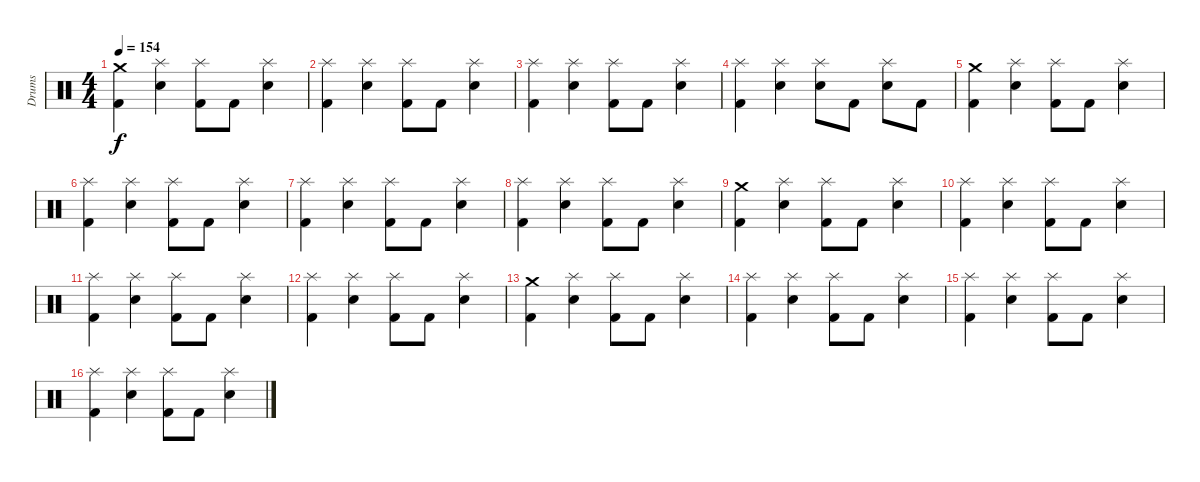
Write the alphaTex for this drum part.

\track ("Drums" "Drums") {instrument percussion}
\staff {score}
\articulation defaults
\ts (4 4)
\tempo 154
\clef neutral
\ks c
("Kick (hit) 2" "Crash medium (hit)").4{dy f} ("Splash (hit)" "Electric Snare (hit)").4 ("Kick (hit) 2" "Splash (hit)").8 "Kick (hit) 2".8 ("Splash (hit)" "Electric Snare (hit)").4 |
("Kick (hit) 2" "Splash (hit)").4 ("Splash (hit)" "Electric Snare (hit)").4 ("Kick (hit) 2" "Splash (hit)").8 "Kick (hit) 2".8 ("Splash (hit)" "Electric Snare (hit)").4 |
("Kick (hit) 2" "Splash (hit)").4 ("Electric Snare (hit)" "Splash (hit)").4 ("Kick (hit) 2" "Splash (hit)").8 "Kick (hit) 2".8 ("Electric Snare (hit)" "Splash (hit)").4 |
("Kick (hit) 2" "Splash (hit)").4 ("Electric Snare (hit)" "Splash (hit)").4 ("Snare (hit) 2" "Splash (hit)").8 "Kick (hit) 2".8 ("Electric Snare (hit)" "Splash (hit)").8 "Kick (hit) 2".8 |
("Kick (hit) 2" "Crash medium (hit)").4 ("Splash (hit)" "Electric Snare (hit)").4 ("Kick (hit) 2" "Splash (hit)").8 "Kick (hit) 2".8 ("Splash (hit)" "Electric Snare (hit)").4 |
("Kick (hit) 2" "Splash (hit)").4 ("Splash (hit)" "Electric Snare (hit)").4 ("Kick (hit) 2" "Splash (hit)").8 "Kick (hit) 2".8 ("Splash (hit)" "Electric Snare (hit)").4 |
("Kick (hit) 2" "Splash (hit)").4 ("Electric Snare (hit)" "Splash (hit)").4 ("Kick (hit) 2" "Splash (hit)").8 "Kick (hit) 2".8 ("Electric Snare (hit)" "Splash (hit)").4 |
("Kick (hit) 2" "Splash (hit)").4 ("Electric Snare (hit)" "Splash (hit)").4 ("Kick (hit) 2" "Splash (hit)").8 "Kick (hit) 2".8 ("Electric Snare (hit)" "Splash (hit)").4 |
("Kick (hit) 2" "Crash medium (hit)").4 ("Splash (hit)" "Electric Snare (hit)").4 ("Kick (hit) 2" "Splash (hit)").8 "Kick (hit) 2".8 ("Splash (hit)" "Electric Snare (hit)").4 |
("Kick (hit) 2" "Splash (hit)").4 ("Splash (hit)" "Electric Snare (hit)").4 ("Kick (hit) 2" "Splash (hit)").8 "Kick (hit) 2".8 ("Splash (hit)" "Electric Snare (hit)").4 |
("Kick (hit) 2" "Splash (hit)").4 ("Electric Snare (hit)" "Splash (hit)").4 ("Kick (hit) 2" "Splash (hit)").8 "Kick (hit) 2".8 ("Electric Snare (hit)" "Splash (hit)").4 |
("Kick (hit) 2" "Splash (hit)").4 ("Electric Snare (hit)" "Splash (hit)").4 ("Kick (hit) 2" "Splash (hit)").8 "Kick (hit) 2".8 ("Electric Snare (hit)" "Splash (hit)").4 |
("Kick (hit) 2" "Crash medium (hit)").4 ("Splash (hit)" "Electric Snare (hit)").4 ("Kick (hit) 2" "Splash (hit)").8 "Kick (hit) 2".8 ("Splash (hit)" "Electric Snare (hit)").4 |
("Kick (hit) 2" "Splash (hit)").4 ("Splash (hit)" "Electric Snare (hit)").4 ("Kick (hit) 2" "Splash (hit)").8 "Kick (hit) 2".8 ("Splash (hit)" "Electric Snare (hit)").4 |
("Kick (hit) 2" "Splash (hit)").4 ("Electric Snare (hit)" "Splash (hit)").4 ("Kick (hit) 2" "Splash (hit)").8 "Kick (hit) 2".8 ("Electric Snare (hit)" "Splash (hit)").4 |
("Kick (hit) 2" "Splash (hit)").4 ("Electric Snare (hit)" "Splash (hit)").4 ("Kick (hit) 2" "Splash (hit)").8 "Kick (hit) 2".8 ("Electric Snare (hit)" "Splash (hit)").4
